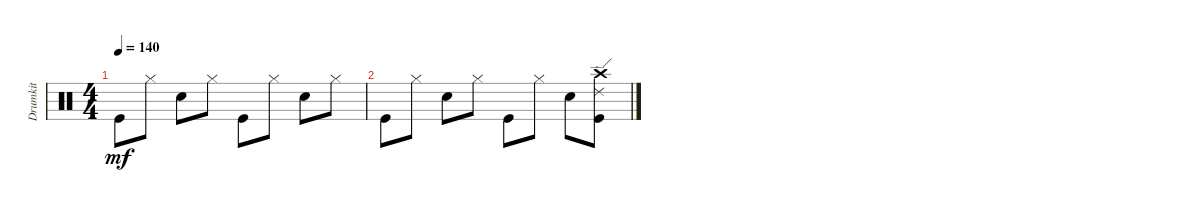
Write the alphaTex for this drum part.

\track ("Drumkit" "Drumkit") {instrument percussion}
\staff {score}
\articulation defaults
\ts (4 4)
\tempo 140
\clef neutral
\ks c "Kick (hit)".8{dy mf} "Hi-Hat (closed)".8 "Snare (hit) 2".8 "Hi-Hat (closed)".8 "Kick (hit)".8 "Hi-Hat (closed)".8 "Snare (hit) 2".8 "Hi-Hat (closed)".8
|
"Kick (hit)".8 "Hi-Hat (closed)".8 "Snare (hit) 2".8 "Hi-Hat (closed)".8 "Kick (hit)".8 "Hi-Hat (closed)".8 "Snare (hit) 2".8 ("Kick (hit)" "Ride (edge) 2" "Crash high (hit)").8
